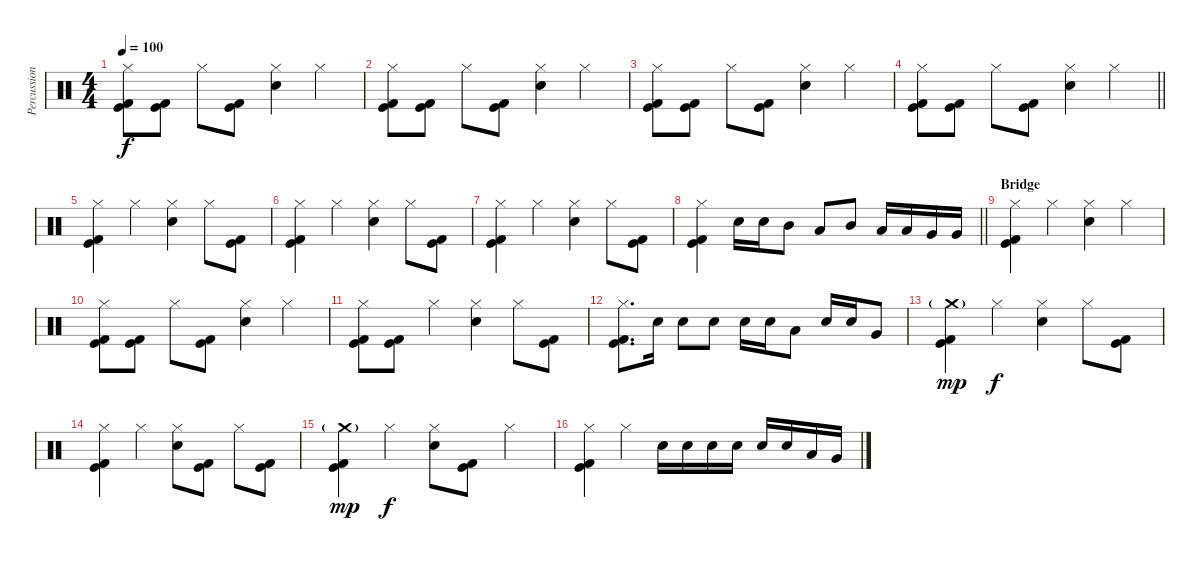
\track ("Percussion" "Percussion") {instrument percussion}
\staff {score}
\articulation defaults
\ts (4 4)
\section ("" "")
\tempo 100
\clef neutral
\ks c
("Hi-Hat (closed)" "Kick (hit)" "Kick (hit) 2").8{dy f} ("Kick (hit)" "Kick (hit) 2").8 "Hi-Hat (closed)".8 ("Kick (hit)" "Kick (hit) 2").8 ("Hi-Hat (closed)" "Electric Snare (hit)").4 "Hi-Hat (closed)".4 |
("Hi-Hat (closed)" "Kick (hit)" "Kick (hit) 2").8 ("Kick (hit)" "Kick (hit) 2").8 "Hi-Hat (closed)".8 ("Kick (hit)" "Kick (hit) 2").8 ("Hi-Hat (closed)" "Electric Snare (hit)").4 "Hi-Hat (closed)".4 |
("Hi-Hat (closed)" "Kick (hit)" "Kick (hit) 2").8 ("Kick (hit)" "Kick (hit) 2").8 "Hi-Hat (closed)".8 ("Kick (hit)" "Kick (hit) 2").8 ("Hi-Hat (closed)" "Electric Snare (hit)").4 "Hi-Hat (closed)".4 |
\barLineRight lightlight
("Hi-Hat (closed)" "Kick (hit)" "Kick (hit) 2").8 ("Kick (hit)" "Kick (hit) 2").8 "Hi-Hat (closed)".8 ("Kick (hit)" "Kick (hit) 2").8 ("Hi-Hat (closed)" "Electric Snare (hit)").4 "Hi-Hat (closed)".4 |
\section ("" "")
("Hi-Hat (closed)" "Kick (hit)" "Kick (hit) 2").4 "Hi-Hat (closed)".4 ("Hi-Hat (closed)" "Electric Snare (hit)").4 "Hi-Hat (closed)".8 ("Kick (hit)" "Kick (hit) 2").8 |
("Hi-Hat (closed)" "Kick (hit)" "Kick (hit) 2").4 "Hi-Hat (closed)".4 ("Hi-Hat (closed)" "Electric Snare (hit)").4 "Hi-Hat (closed)".8 ("Kick (hit)" "Kick (hit) 2").8 |
("Hi-Hat (closed)" "Kick (hit)" "Kick (hit) 2").4 "Hi-Hat (closed)".4 ("Hi-Hat (closed)" "Electric Snare (hit)").4 "Hi-Hat (closed)".8 ("Kick (hit)" "Kick (hit) 2").8 |
\barLineRight lightlight
("Hi-Hat (closed)" "Kick (hit)" "Kick (hit) 2").4 "Electric Snare (hit)".16 "Electric Snare (hit)".16 "Mid Tom (hit)".8 "Low Tom (hit)".8 "Mid Tom (hit)".8 "Low Tom (hit)".16 "Low Tom (hit)".16 "Very Low Tom (hit)".16 "Very Low Tom (hit)".16 |
\section ("" "Bridge")
("Hi-Hat (closed)" "Kick (hit)" "Kick (hit) 2").4 "Hi-Hat (closed)".4 ("Hi-Hat (closed)" "Electric Snare (hit)").4 "Hi-Hat (closed)".4 |
("Hi-Hat (closed)" "Kick (hit)" "Kick (hit) 2").8 ("Kick (hit)" "Kick (hit) 2").8 "Hi-Hat (closed)".8 ("Kick (hit)" "Kick (hit) 2").8 ("Hi-Hat (closed)" "Electric Snare (hit)").4 "Hi-Hat (closed)".4 |
("Hi-Hat (closed)" "Kick (hit)" "Kick (hit) 2").8 ("Kick (hit)" "Kick (hit) 2").8 "Hi-Hat (closed)".4 ("Hi-Hat (closed)" "Electric Snare (hit)").4 "Hi-Hat (closed)".8 ("Kick (hit)" "Kick (hit) 2").8 |
("Hi-Hat (closed)" "Kick (hit)" "Kick (hit) 2").8{d} "Electric Snare (hit)".16 "Electric Snare (hit)".8 "Electric Snare (hit)".8 "Electric Snare (hit)".16 "Electric Snare (hit)".16 "Low Tom (hit)".8 "Electric Snare (hit)".16 "Electric Snare (hit)".16 "Very Low Tom (hit)".8 |
("Crash medium (hit)"{g} "Kick (hit)" "Kick (hit) 2").4{dy mp} "Hi-Hat (closed)".4{dy f} ("Hi-Hat (closed)" "Electric Snare (hit)").4 "Hi-Hat (closed)".8 ("Kick (hit)" "Kick (hit) 2").8 |
("Hi-Hat (closed)" "Kick (hit)" "Kick (hit) 2").4 "Hi-Hat (closed)".4 ("Hi-Hat (closed)" "Electric Snare (hit)").8 ("Kick (hit)" "Kick (hit) 2").8 "Hi-Hat (closed)".8 ("Kick (hit)" "Kick (hit) 2").8 |
("Crash medium (hit)"{g} "Kick (hit)" "Kick (hit) 2").4{dy mp} "Hi-Hat (closed)".4{dy f} ("Hi-Hat (closed)" "Electric Snare (hit)").8 ("Kick (hit)" "Kick (hit) 2").8 "Hi-Hat (closed)".4 |
("Hi-Hat (closed)" "Kick (hit)" "Kick (hit) 2").4 "Hi-Hat (closed)".4 "Electric Snare (hit)".16 "Electric Snare (hit)".16 "Electric Snare (hit)".16 "Electric Snare (hit)".16 "Electric Snare (hit)".16 "Electric Snare (hit)".16 "Low Tom (hit)".16 "Very Low Tom (hit)".16
